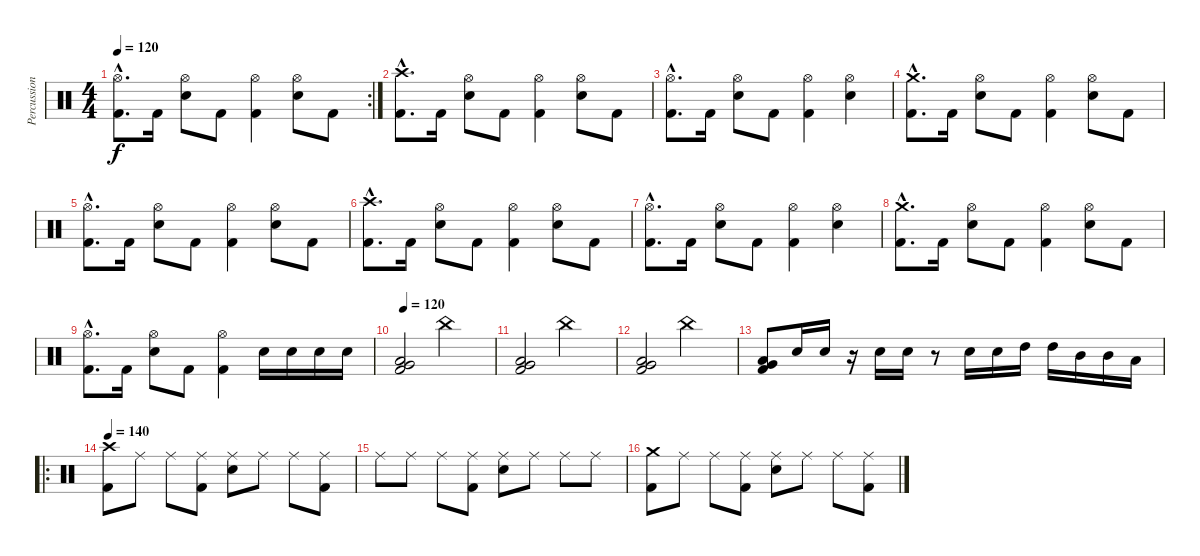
\track ("Percussions" "Percussion") {instrument percussion}
\staff {score}
\articulation defaults
\rc 2
\ts (4 4)
\tempo 120
\clef neutral
\ks c
("Hi-Hat (open)"{hac} "Kick (hit) 2"{hac}).8{d dy f} "Kick (hit) 2".16 ("Hi-Hat (open)" "Electric Snare (hit)").8 "Kick (hit) 2".8 ("Hi-Hat (open)" "Kick (hit) 2").4 ("Hi-Hat (open)" "Electric Snare (hit)").8 "Kick (hit) 2".8 |
("Crash high (hit)"{hac} "Kick (hit) 2"{hac}).8{d} "Kick (hit) 2".16 ("Hi-Hat (open)" "Electric Snare (hit)").8 "Kick (hit) 2".8 ("Hi-Hat (open)" "Kick (hit) 2").4 ("Hi-Hat (open)" "Electric Snare (hit)").8 "Kick (hit) 2".8 |
("Hi-Hat (open)"{hac} "Kick (hit) 2"{hac}).8{d} "Kick (hit) 2".16 ("Hi-Hat (open)" "Electric Snare (hit)").8 "Kick (hit) 2".8 ("Hi-Hat (open)" "Kick (hit) 2").4 ("Hi-Hat (open)" "Electric Snare (hit)").4 |
("Crash medium (hit)"{hac} "Kick (hit) 2"{hac}).8{d} "Kick (hit) 2".16 ("Hi-Hat (open)" "Electric Snare (hit)").8 "Kick (hit) 2".8 ("Hi-Hat (open)" "Kick (hit) 2").4 ("Hi-Hat (open)" "Electric Snare (hit)").8 "Kick (hit) 2".8 |
("Hi-Hat (open)"{hac} "Kick (hit) 2"{hac}).8{d} "Kick (hit) 2".16 ("Hi-Hat (open)" "Electric Snare (hit)").8 "Kick (hit) 2".8 ("Hi-Hat (open)" "Kick (hit) 2").4 ("Hi-Hat (open)" "Electric Snare (hit)").8 "Kick (hit) 2".8 |
("Crash high (hit)"{hac} "Kick (hit) 2"{hac}).8{d} "Kick (hit) 2".16 ("Hi-Hat (open)" "Electric Snare (hit)").8 "Kick (hit) 2".8 ("Hi-Hat (open)" "Kick (hit) 2").4 ("Hi-Hat (open)" "Electric Snare (hit)").8 "Kick (hit) 2".8 |
("Hi-Hat (open)"{hac} "Kick (hit) 2"{hac}).8{d} "Kick (hit) 2".16 ("Hi-Hat (open)" "Electric Snare (hit)").8 "Kick (hit) 2".8 ("Hi-Hat (open)" "Kick (hit) 2").4 ("Hi-Hat (open)" "Electric Snare (hit)").4 |
("Crash medium (hit)"{hac} "Kick (hit) 2"{hac}).8{d} "Kick (hit) 2".16 ("Hi-Hat (open)" "Electric Snare (hit)").8 "Kick (hit) 2".8 ("Hi-Hat (open)" "Kick (hit) 2").4 ("Hi-Hat (open)" "Electric Snare (hit)").8 "Kick (hit) 2".8 |
("Hi-Hat (open)"{hac} "Kick (hit) 2"{hac}).8{d} "Kick (hit) 2".16 ("Hi-Hat (open)" "Electric Snare (hit)").8 "Kick (hit) 2".8 ("Hi-Hat (open)" "Kick (hit) 2").4 "Electric Snare (hit)".16 "Electric Snare (hit)".16 "Electric Snare (hit)".16 "Electric Snare (hit)".16 |
\tempo 120
("Very Low Tom (hit)" "Low Floor Tom (hit)" "Kick (hit) 2").2 "China (hit)".2 |
("Very Low Tom (hit)" "Low Floor Tom (hit)" "Kick (hit) 2").2 "China (hit)".2 |
("Very Low Tom (hit)" "Low Floor Tom (hit)" "Kick (hit) 2").2 "China (hit)".2 |
("Very Low Tom (hit)" "Low Floor Tom (hit)" "Kick (hit) 2").8 "Electric Snare (hit)".16 "Electric Snare (hit)".16 r.16 "Electric Snare (hit)".16 "Electric Snare (hit)".16 r.8 "Electric Snare (hit)".16 "Electric Snare (hit)".16 "High Tom (hit)".16 "High Tom (hit)".16 "Mid Tom (hit)".16 "Mid Tom (hit)".16 "Low Tom (hit)".16 |
\ro
\tempo 140
("Crash high (hit)" "Kick (hit) 2").8 "Ride (middle)".8 "Ride (middle)".8 ("Ride (middle)" "Kick (hit) 2").8 ("Ride (middle)" "Electric Snare (hit)").8 "Ride (middle)".8 "Ride (middle)".8 ("Ride (middle)" "Kick (hit) 2").8 |
"Ride (middle)".8 "Ride (middle)".8 "Ride (middle)".8 ("Ride (middle)" "Kick (hit) 2").8 ("Ride (middle)" "Electric Snare (hit)").8 "Ride (middle)".8 "Ride (middle)".8 "Ride (middle)".8 |
("Crash medium (hit)" "Kick (hit) 2").8 "Ride (middle)".8 "Ride (middle)".8 ("Ride (middle)" "Kick (hit) 2").8 ("Ride (middle)" "Electric Snare (hit)").8 "Ride (middle)".8 "Ride (middle)".8 ("Ride (middle)" "Kick (hit) 2").8
